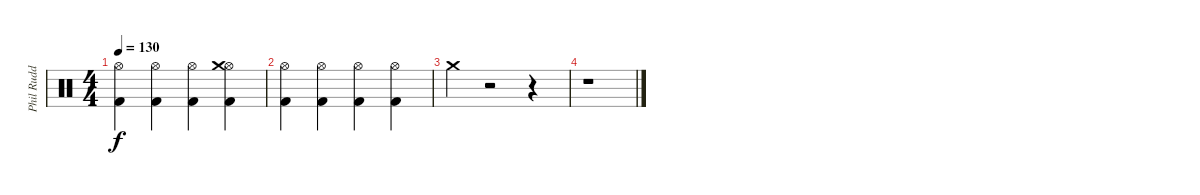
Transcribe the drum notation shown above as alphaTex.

\track ("Phil Rudd" "Phil Rudd") {instrument percussion}
\staff {score}
\articulation defaults
\ts (4 4)
\tempo 130
\clef neutral
\ks c
("Kick (hit) 2" "Hi-Hat (open)").4{dy f} ("Kick (hit) 2" "Hi-Hat (open)").4 ("Kick (hit) 2" "Hi-Hat (open)").4 ("Kick (hit) 2" "Hi-Hat (open)" "Crash medium (hit)").4 |
("Kick (hit) 2" "Hi-Hat (open)").4 ("Kick (hit) 2" "Hi-Hat (open)").4 ("Kick (hit) 2" "Hi-Hat (open)").4 ("Kick (hit) 2" "Hi-Hat (open)").4 |
"Crash medium (hit)".4 r.2 r.4 |
r.1
